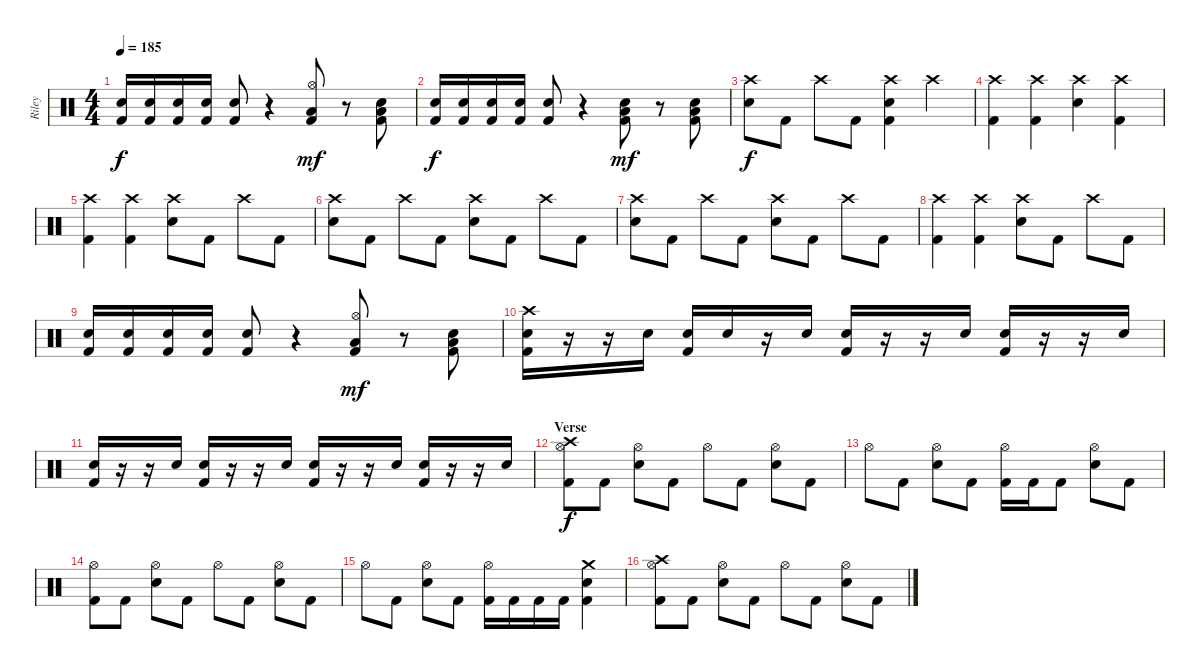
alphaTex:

\track ("Riley" "Riley") {instrument percussion}
\staff {score}
\articulation defaults
\ts (4 4)
\tempo 185
\clef neutral
\ks c
("Electric Snare (hit)" "Kick (hit) 2").16{dy f} ("Electric Snare (hit)" "Kick (hit) 2").16 ("Electric Snare (hit)" "Kick (hit) 2").16 ("Electric Snare (hit)" "Kick (hit) 2").16 ("Electric Snare (hit)" "Kick (hit) 2").8 r.4 ("Hi-Hat (open)" "Low Tom (hit)" "Kick (hit) 2").8{dy mf} r.8 ("Low Tom (hit)" "Electric Snare (hit)" "Kick (hit) 2").8 |
("Electric Snare (hit)" "Kick (hit) 2").16{dy f} ("Electric Snare (hit)" "Kick (hit) 2").16 ("Electric Snare (hit)" "Kick (hit) 2").16 ("Electric Snare (hit)" "Kick (hit) 2").16 ("Electric Snare (hit)" "Kick (hit) 2").8 r.4 ("Low Floor Tom (hit)" "Electric Snare (hit)" "Kick (hit) 2").8{dy mf} r.8 ("Low Floor Tom (hit)" "Electric Snare (hit)" "Kick (hit) 2").8 |
("Crash high (hit)" "Electric Snare (hit)").8{dy f} "Kick (hit) 2".8 "Crash high (hit)".8 "Kick (hit) 2".8 ("Crash high (hit)" "Electric Snare (hit)" "Kick (hit) 2").4 "Crash high (hit)".4 |
("Crash high (hit)" "Kick (hit) 2").4 ("Crash high (hit)" "Kick (hit) 2").4 ("Crash high (hit)" "Electric Snare (hit)").4 ("Crash high (hit)" "Kick (hit) 2").4 |
("Crash high (hit)" "Kick (hit) 2").4 ("Crash high (hit)" "Kick (hit) 2").4 ("Crash high (hit)" "Electric Snare (hit)").8 "Kick (hit) 2".8 "Crash high (hit)".8 "Kick (hit) 2".8 |
("Crash high (hit)" "Electric Snare (hit)").8 "Kick (hit) 2".8 "Crash high (hit)".8 "Kick (hit) 2".8 ("Crash high (hit)" "Electric Snare (hit)").8 "Kick (hit) 2".8 "Crash high (hit)".8 "Kick (hit) 2".8 |
("Crash high (hit)" "Electric Snare (hit)").8 "Kick (hit) 2".8 "Crash high (hit)".8 "Kick (hit) 2".8 ("Crash high (hit)" "Electric Snare (hit)").8 "Kick (hit) 2".8 "Crash high (hit)".8 "Kick (hit) 2".8 |
("Crash high (hit)" "Kick (hit) 2").4 ("Crash high (hit)" "Kick (hit) 2").4 ("Crash high (hit)" "Electric Snare (hit)").8 "Kick (hit) 2".8 "Crash high (hit)".8 "Kick (hit) 2".8 |
("Electric Snare (hit)" "Kick (hit) 2").16 ("Electric Snare (hit)" "Kick (hit) 2").16 ("Electric Snare (hit)" "Kick (hit) 2").16 ("Electric Snare (hit)" "Kick (hit) 2").16 ("Electric Snare (hit)" "Kick (hit) 2").8 r.4 ("Hi-Hat (open)" "Low Tom (hit)" "Kick (hit) 2").8{dy mf} r.8 ("Low Tom (hit)" "Electric Snare (hit)" "Kick (hit) 2").8 |
("Crash high (hit)" "Electric Snare (hit)" "Kick (hit) 2").16 r.16 r.16 "Electric Snare (hit)".16 ("Electric Snare (hit)" "Kick (hit) 2").16 "Electric Snare (hit)".16 r.16 "Electric Snare (hit)".16 ("Electric Snare (hit)" "Kick (hit) 2").16 r.16 r.16 "Electric Snare (hit)".16 ("Electric Snare (hit)" "Kick (hit) 2").16 r.16 r.16 "Electric Snare (hit)".16 |
("Electric Snare (hit)" "Kick (hit) 2").16 r.16 r.16 "Electric Snare (hit)".16 ("Electric Snare (hit)" "Kick (hit) 2").16 r.16 r.16 "Electric Snare (hit)".16 ("Electric Snare (hit)" "Kick (hit) 2").16 r.16 r.16 "Electric Snare (hit)".16 ("Electric Snare (hit)" "Kick (hit) 2").16 r.16 r.16 "Electric Snare (hit)".16 |
\section ("" "Verse")
("Crash high (hit)" "Hi-Hat (open)" "Kick (hit) 2").8{dy f} "Kick (hit) 2".8 ("Hi-Hat (open)" "Electric Snare (hit)").8 "Kick (hit) 2".8 "Hi-Hat (open)".8 "Kick (hit) 2".8 ("Hi-Hat (open)" "Electric Snare (hit)").8 "Kick (hit) 2".8 |
"Hi-Hat (open)".8 "Kick (hit) 2".8 ("Hi-Hat (open)" "Electric Snare (hit)").8 "Kick (hit) 2".8 ("Hi-Hat (open)" "Kick (hit) 2").16 "Kick (hit) 2".16 "Kick (hit) 2".8 ("Hi-Hat (open)" "Electric Snare (hit)").8 "Kick (hit) 2".8 |
("Hi-Hat (open)" "Kick (hit) 2").8 "Kick (hit) 2".8 ("Hi-Hat (open)" "Electric Snare (hit)").8 "Kick (hit) 2".8 "Hi-Hat (open)".8 "Kick (hit) 2".8 ("Hi-Hat (open)" "Electric Snare (hit)").8 "Kick (hit) 2".8 |
"Hi-Hat (open)".8 "Kick (hit) 2".8 ("Hi-Hat (open)" "Electric Snare (hit)").8 "Kick (hit) 2".8 ("Hi-Hat (open)" "Kick (hit) 2").16 "Kick (hit) 2".16 "Kick (hit) 2".16 "Kick (hit) 2".16 ("Crash medium (hit)" "Electric Snare (hit)" "Kick (hit) 2").4 |
("Crash high (hit)" "Hi-Hat (open)" "Kick (hit) 2").8 "Kick (hit) 2".8 ("Hi-Hat (open)" "Electric Snare (hit)").8 "Kick (hit) 2".8 "Hi-Hat (open)".8 "Kick (hit) 2".8 ("Hi-Hat (open)" "Electric Snare (hit)").8 "Kick (hit) 2".8
